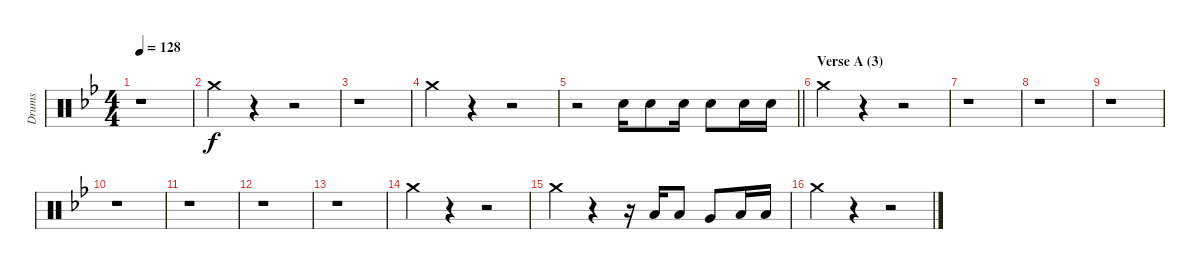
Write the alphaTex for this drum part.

\track ("Drums" "Drums") {instrument percussion}
\staff {score}
\articulation defaults
\ts (4 4)
\tempo 128
\clef neutral
\ks gminor
r.1{dy f} |
"Crash medium (hit)".4 r.4 r.2 |
r.1 |
"Crash medium (hit)".4 r.4 r.2 |
\barLineRight lightlight
r.2 "Electric Snare (hit)".16 "Electric Snare (hit)".8 "Electric Snare (hit)".16 "Electric Snare (hit)".8 "Electric Snare (hit)".16 "Electric Snare (hit)".16 |
\section ("" "Verse A (3)")
"Crash medium (hit)".4 r.4 r.2 |
r.1 |
r.1 |
r.1 |
r.1 |
r.1 |
r.1 |
r.1 |
"Crash medium (hit)".4 r.4 r.2 |
"Crash medium (hit)".4 r.4 r.16 "Low Tom (hit)".16 "Low Tom (hit)".8 "Very Low Tom (hit)".8 "Low Floor Tom (hit)".16 "Low Floor Tom (hit)".16 |
"Crash medium (hit)".4 r.4 r.2
